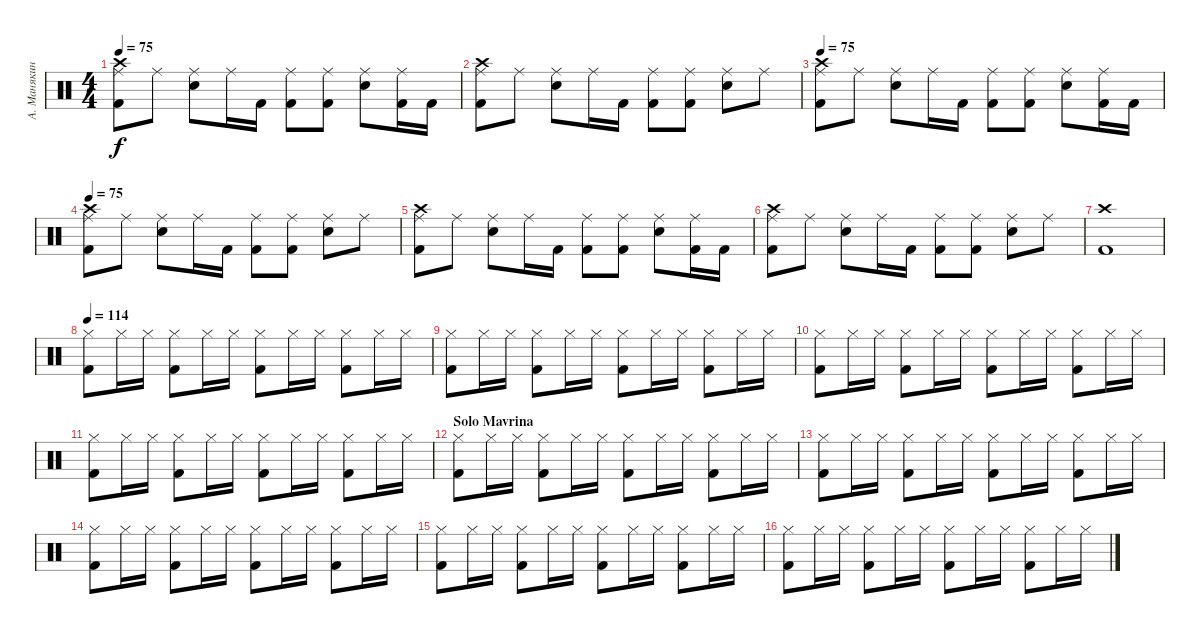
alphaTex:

\track ("А. Манякин" "А. Манякин") {instrument percussion}
\staff {score}
\articulation defaults
\ts (4 4)
\tempo 75
\clef neutral
\ks c
("Kick (hit) 2" "Crash high (hit)" "Ride (middle)").8{dy f} "Ride (middle)".8 ("Electric Snare (hit)" "Ride (middle)").8 "Ride (middle)".16 "Kick (hit) 2".16 ("Kick (hit) 2" "Ride (middle)").8 ("Kick (hit) 2" "Ride (middle)").8 ("Electric Snare (hit)" "Ride (middle)").8 ("Kick (hit) 2" "Ride (middle)").16 "Kick (hit) 2".16 |
("Kick (hit) 2" "Crash high (hit)" "Ride (middle)").8 "Ride (middle)".8 ("Electric Snare (hit)" "Ride (middle)").8 "Ride (middle)".16 "Kick (hit) 2".16 ("Kick (hit) 2" "Ride (middle)").8 ("Kick (hit) 2" "Ride (middle)").8 ("Electric Snare (hit)" "Ride (middle)").8 "Ride (middle)".8 |
\tempo 75
("Kick (hit) 2" "Crash high (hit)" "Ride (middle)").8 "Ride (middle)".8 ("Electric Snare (hit)" "Ride (middle)").8 "Ride (middle)".16 "Kick (hit) 2".16 ("Kick (hit) 2" "Ride (middle)").8 ("Kick (hit) 2" "Ride (middle)").8 ("Electric Snare (hit)" "Ride (middle)").8 ("Kick (hit) 2" "Ride (middle)").16 "Kick (hit) 2".16 |
\tempo 75
("Kick (hit) 2" "Crash high (hit)" "Ride (middle)").8 "Ride (middle)".8 ("Electric Snare (hit)" "Ride (middle)").8 "Ride (middle)".16 "Kick (hit) 2".16 ("Kick (hit) 2" "Ride (middle)").8 ("Kick (hit) 2" "Ride (middle)").8 ("Electric Snare (hit)" "Ride (middle)").8 "Ride (middle)".8 |
("Kick (hit) 2" "Crash high (hit)" "Ride (middle)").8 "Ride (middle)".8 ("Electric Snare (hit)" "Ride (middle)").8 "Ride (middle)".16 "Kick (hit) 2".16 ("Kick (hit) 2" "Ride (middle)").8 ("Kick (hit) 2" "Ride (middle)").8 ("Electric Snare (hit)" "Ride (middle)").8 ("Kick (hit) 2" "Ride (middle)").16 "Kick (hit) 2".16 |
("Kick (hit) 2" "Crash high (hit)" "Ride (middle)").8 "Ride (middle)".8 ("Electric Snare (hit)" "Ride (middle)").8 "Ride (middle)".16 "Kick (hit) 2".16 ("Kick (hit) 2" "Ride (middle)").8 ("Kick (hit) 2" "Ride (middle)").8 ("Electric Snare (hit)" "Ride (middle)").8 "Ride (middle)".8 |
("Crash high (hit)" "Kick (hit) 2").1 |
\tempo 114
("Kick (hit) 2" "Hi-Hat (closed)").8 "Hi-Hat (closed)".16 "Hi-Hat (closed)".16 ("Kick (hit) 2" "Hi-Hat (closed)").8 "Hi-Hat (closed)".16 "Hi-Hat (closed)".16 ("Kick (hit) 2" "Hi-Hat (closed)").8 "Hi-Hat (closed)".16 "Hi-Hat (closed)".16 ("Kick (hit) 2" "Hi-Hat (closed)").8 "Hi-Hat (closed)".16 "Hi-Hat (closed)".16 |
("Kick (hit) 2" "Hi-Hat (closed)").8 "Hi-Hat (closed)".16 "Hi-Hat (closed)".16 ("Kick (hit) 2" "Hi-Hat (closed)").8 "Hi-Hat (closed)".16 "Hi-Hat (closed)".16 ("Kick (hit) 2" "Hi-Hat (closed)").8 "Hi-Hat (closed)".16 "Hi-Hat (closed)".16 ("Kick (hit) 2" "Hi-Hat (closed)").8 "Hi-Hat (closed)".16 "Hi-Hat (closed)".16 |
("Kick (hit) 2" "Hi-Hat (closed)").8 "Hi-Hat (closed)".16 "Hi-Hat (closed)".16 ("Kick (hit) 2" "Hi-Hat (closed)").8 "Hi-Hat (closed)".16 "Hi-Hat (closed)".16 ("Kick (hit) 2" "Hi-Hat (closed)").8 "Hi-Hat (closed)".16 "Hi-Hat (closed)".16 ("Kick (hit) 2" "Hi-Hat (closed)").8 "Hi-Hat (closed)".16 "Hi-Hat (closed)".16 |
("Kick (hit) 2" "Hi-Hat (closed)").8 "Hi-Hat (closed)".16 "Hi-Hat (closed)".16 ("Kick (hit) 2" "Hi-Hat (closed)").8 "Hi-Hat (closed)".16 "Hi-Hat (closed)".16 ("Kick (hit) 2" "Hi-Hat (closed)").8 "Hi-Hat (closed)".16 "Hi-Hat (closed)".16 ("Kick (hit) 2" "Hi-Hat (closed)").8 "Hi-Hat (closed)".16 "Hi-Hat (closed)".16 |
\section ("" "Solo Mavrina")
("Kick (hit) 2" "Hi-Hat (closed)").8 "Hi-Hat (closed)".16 "Hi-Hat (closed)".16 ("Kick (hit) 2" "Hi-Hat (closed)").8 "Hi-Hat (closed)".16 "Hi-Hat (closed)".16 ("Kick (hit) 2" "Hi-Hat (closed)").8 "Hi-Hat (closed)".16 "Hi-Hat (closed)".16 ("Kick (hit) 2" "Hi-Hat (closed)").8 "Hi-Hat (closed)".16 "Hi-Hat (closed)".16 |
("Kick (hit) 2" "Hi-Hat (closed)").8 "Hi-Hat (closed)".16 "Hi-Hat (closed)".16 ("Kick (hit) 2" "Hi-Hat (closed)").8 "Hi-Hat (closed)".16 "Hi-Hat (closed)".16 ("Kick (hit) 2" "Hi-Hat (closed)").8 "Hi-Hat (closed)".16 "Hi-Hat (closed)".16 ("Kick (hit) 2" "Hi-Hat (closed)").8 "Hi-Hat (closed)".16 "Hi-Hat (closed)".16 |
("Kick (hit) 2" "Hi-Hat (closed)").8 "Hi-Hat (closed)".16 "Hi-Hat (closed)".16 ("Kick (hit) 2" "Hi-Hat (closed)").8 "Hi-Hat (closed)".16 "Hi-Hat (closed)".16 ("Kick (hit) 2" "Hi-Hat (closed)").8 "Hi-Hat (closed)".16 "Hi-Hat (closed)".16 ("Kick (hit) 2" "Hi-Hat (closed)").8 "Hi-Hat (closed)".16 "Hi-Hat (closed)".16 |
("Kick (hit) 2" "Hi-Hat (closed)").8 "Hi-Hat (closed)".16 "Hi-Hat (closed)".16 ("Kick (hit) 2" "Hi-Hat (closed)").8 "Hi-Hat (closed)".16 "Hi-Hat (closed)".16 ("Kick (hit) 2" "Hi-Hat (closed)").8 "Hi-Hat (closed)".16 "Hi-Hat (closed)".16 ("Kick (hit) 2" "Hi-Hat (closed)").8 "Hi-Hat (closed)".16 "Hi-Hat (closed)".16 |
("Kick (hit) 2" "Hi-Hat (closed)").8 "Hi-Hat (closed)".16 "Hi-Hat (closed)".16 ("Kick (hit) 2" "Hi-Hat (closed)").8 "Hi-Hat (closed)".16 "Hi-Hat (closed)".16 ("Kick (hit) 2" "Hi-Hat (closed)").8 "Hi-Hat (closed)".16 "Hi-Hat (closed)".16 ("Kick (hit) 2" "Hi-Hat (closed)").8 "Hi-Hat (closed)".16 "Hi-Hat (closed)".16
